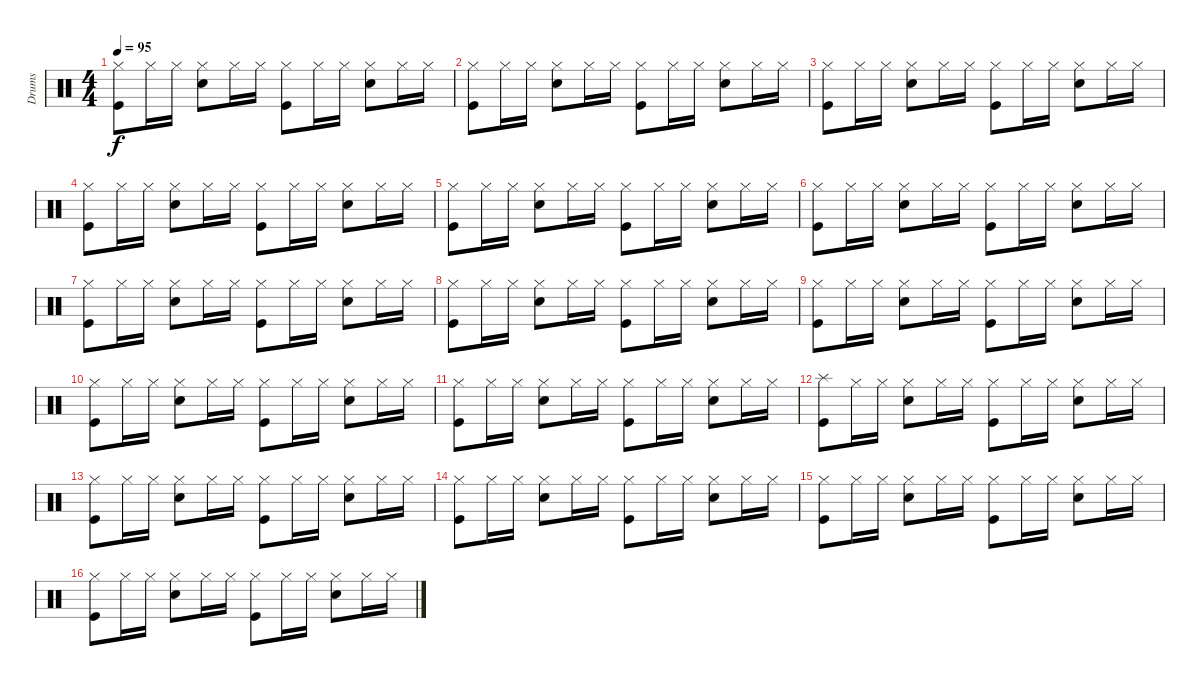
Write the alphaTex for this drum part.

\track ("Drums" "Drums") {instrument percussion}
\staff {score}
\articulation defaults
\ts (4 4)
\tempo 95
\clef neutral
\ks c
("Hi-Hat (closed)" "Kick (hit)").8{dy f} "Hi-Hat (closed)".16 "Hi-Hat (closed)".16 ("Hi-Hat (closed)" "Snare (hit) 2").8 "Hi-Hat (closed)".16 "Hi-Hat (closed)".16 ("Hi-Hat (closed)" "Kick (hit)").8 "Hi-Hat (closed)".16 "Hi-Hat (closed)".16 ("Hi-Hat (closed)" "Snare (hit) 2").8 "Hi-Hat (closed)".16 "Hi-Hat (closed)".16 |
("Hi-Hat (closed)" "Kick (hit)").8 "Hi-Hat (closed)".16 "Hi-Hat (closed)".16 ("Hi-Hat (closed)" "Snare (hit) 2").8 "Hi-Hat (closed)".16 "Hi-Hat (closed)".16 ("Hi-Hat (closed)" "Kick (hit)").8 "Hi-Hat (closed)".16 "Hi-Hat (closed)".16 ("Hi-Hat (closed)" "Snare (hit) 2").8 "Hi-Hat (closed)".16 "Hi-Hat (closed)".16 |
("Hi-Hat (closed)" "Kick (hit)").8 "Hi-Hat (closed)".16 "Hi-Hat (closed)".16 ("Hi-Hat (closed)" "Snare (hit) 2").8 "Hi-Hat (closed)".16 "Hi-Hat (closed)".16 ("Hi-Hat (closed)" "Kick (hit)").8 "Hi-Hat (closed)".16 "Hi-Hat (closed)".16 ("Hi-Hat (closed)" "Snare (hit) 2").8 "Hi-Hat (closed)".16 "Hi-Hat (closed)".16 |
("Hi-Hat (closed)" "Kick (hit)").8 "Hi-Hat (closed)".16 "Hi-Hat (closed)".16 ("Hi-Hat (closed)" "Snare (hit) 2").8 "Hi-Hat (closed)".16 "Hi-Hat (closed)".16 ("Hi-Hat (closed)" "Kick (hit)").8 "Hi-Hat (closed)".16 "Hi-Hat (closed)".16 ("Hi-Hat (closed)" "Snare (hit) 2").8 "Hi-Hat (closed)".16 "Hi-Hat (closed)".16 |
("Hi-Hat (closed)" "Kick (hit)").8 "Hi-Hat (closed)".16 "Hi-Hat (closed)".16 ("Hi-Hat (closed)" "Snare (hit) 2").8 "Hi-Hat (closed)".16 "Hi-Hat (closed)".16 ("Hi-Hat (closed)" "Kick (hit)").8 "Hi-Hat (closed)".16 "Hi-Hat (closed)".16 ("Hi-Hat (closed)" "Snare (hit) 2").8 "Hi-Hat (closed)".16 "Hi-Hat (closed)".16 |
("Hi-Hat (closed)" "Kick (hit)").8 "Hi-Hat (closed)".16 "Hi-Hat (closed)".16 ("Hi-Hat (closed)" "Snare (hit) 2").8 "Hi-Hat (closed)".16 "Hi-Hat (closed)".16 ("Hi-Hat (closed)" "Kick (hit)").8 "Hi-Hat (closed)".16 "Hi-Hat (closed)".16 ("Hi-Hat (closed)" "Snare (hit) 2").8 "Hi-Hat (closed)".16 "Hi-Hat (closed)".16 |
("Hi-Hat (closed)" "Kick (hit)").8 "Hi-Hat (closed)".16 "Hi-Hat (closed)".16 ("Hi-Hat (closed)" "Snare (hit) 2").8 "Hi-Hat (closed)".16 "Hi-Hat (closed)".16 ("Hi-Hat (closed)" "Kick (hit)").8 "Hi-Hat (closed)".16 "Hi-Hat (closed)".16 ("Hi-Hat (closed)" "Snare (hit) 2").8 "Hi-Hat (closed)".16 "Hi-Hat (closed)".16 |
("Hi-Hat (closed)" "Kick (hit)").8 "Hi-Hat (closed)".16 "Hi-Hat (closed)".16 ("Hi-Hat (closed)" "Snare (hit) 2").8 "Hi-Hat (closed)".16 "Hi-Hat (closed)".16 ("Hi-Hat (closed)" "Kick (hit)").8 "Hi-Hat (closed)".16 "Hi-Hat (closed)".16 ("Hi-Hat (closed)" "Snare (hit) 2").8 "Hi-Hat (closed)".16 "Hi-Hat (closed)".16 |
("Hi-Hat (closed)" "Kick (hit)").8 "Hi-Hat (closed)".16 "Hi-Hat (closed)".16 ("Hi-Hat (closed)" "Snare (hit) 2").8 "Hi-Hat (closed)".16 "Hi-Hat (closed)".16 ("Hi-Hat (closed)" "Kick (hit)").8 "Hi-Hat (closed)".16 "Hi-Hat (closed)".16 ("Hi-Hat (closed)" "Snare (hit) 2").8 "Hi-Hat (closed)".16 "Hi-Hat (closed)".16 |
("Hi-Hat (closed)" "Kick (hit)").8 "Hi-Hat (closed)".16 "Hi-Hat (closed)".16 ("Hi-Hat (closed)" "Snare (hit) 2").8 "Hi-Hat (closed)".16 "Hi-Hat (closed)".16 ("Hi-Hat (closed)" "Kick (hit)").8 "Hi-Hat (closed)".16 "Hi-Hat (closed)".16 ("Hi-Hat (closed)" "Snare (hit) 2").8 "Hi-Hat (closed)".16 "Hi-Hat (closed)".16 |
("Hi-Hat (closed)" "Kick (hit)").8 "Hi-Hat (closed)".16 "Hi-Hat (closed)".16 ("Hi-Hat (closed)" "Snare (hit) 2").8 "Hi-Hat (closed)".16 "Hi-Hat (closed)".16 ("Hi-Hat (closed)" "Kick (hit)").8 "Hi-Hat (closed)".16 "Hi-Hat (closed)".16 ("Hi-Hat (closed)" "Snare (hit) 2").8 "Hi-Hat (closed)".16 "Hi-Hat (closed)".16 |
("Splash (hit)" "Kick (hit)").8 "Hi-Hat (closed)".16 "Hi-Hat (closed)".16 ("Hi-Hat (closed)" "Snare (hit) 2").8 "Hi-Hat (closed)".16 "Hi-Hat (closed)".16 ("Hi-Hat (closed)" "Kick (hit)").8 "Hi-Hat (closed)".16 "Hi-Hat (closed)".16 ("Hi-Hat (closed)" "Snare (hit) 2").8 "Hi-Hat (closed)".16 "Hi-Hat (closed)".16 |
("Hi-Hat (closed)" "Kick (hit)").8 "Hi-Hat (closed)".16 "Hi-Hat (closed)".16 ("Hi-Hat (closed)" "Snare (hit) 2").8 "Hi-Hat (closed)".16 "Hi-Hat (closed)".16 ("Hi-Hat (closed)" "Kick (hit)").8 "Hi-Hat (closed)".16 "Hi-Hat (closed)".16 ("Hi-Hat (closed)" "Snare (hit) 2").8 "Hi-Hat (closed)".16 "Hi-Hat (closed)".16 |
("Hi-Hat (closed)" "Kick (hit)").8 "Hi-Hat (closed)".16 "Hi-Hat (closed)".16 ("Hi-Hat (closed)" "Snare (hit) 2").8 "Hi-Hat (closed)".16 "Hi-Hat (closed)".16 ("Hi-Hat (closed)" "Kick (hit)").8 "Hi-Hat (closed)".16 "Hi-Hat (closed)".16 ("Hi-Hat (closed)" "Snare (hit) 2").8 "Hi-Hat (closed)".16 "Hi-Hat (closed)".16 |
("Hi-Hat (closed)" "Kick (hit)").8 "Hi-Hat (closed)".16 "Hi-Hat (closed)".16 ("Hi-Hat (closed)" "Snare (hit) 2").8 "Hi-Hat (closed)".16 "Hi-Hat (closed)".16 ("Hi-Hat (closed)" "Kick (hit)").8 "Hi-Hat (closed)".16 "Hi-Hat (closed)".16 ("Hi-Hat (closed)" "Snare (hit) 2").8 "Hi-Hat (closed)".16 "Hi-Hat (closed)".16 |
("Hi-Hat (closed)" "Kick (hit)").8 "Hi-Hat (closed)".16 "Hi-Hat (closed)".16 ("Hi-Hat (closed)" "Snare (hit) 2").8 "Hi-Hat (closed)".16 "Hi-Hat (closed)".16 ("Hi-Hat (closed)" "Kick (hit)").8 "Hi-Hat (closed)".16 "Hi-Hat (closed)".16 ("Hi-Hat (closed)" "Snare (hit) 2").8 "Hi-Hat (closed)".16 "Hi-Hat (closed)".16
